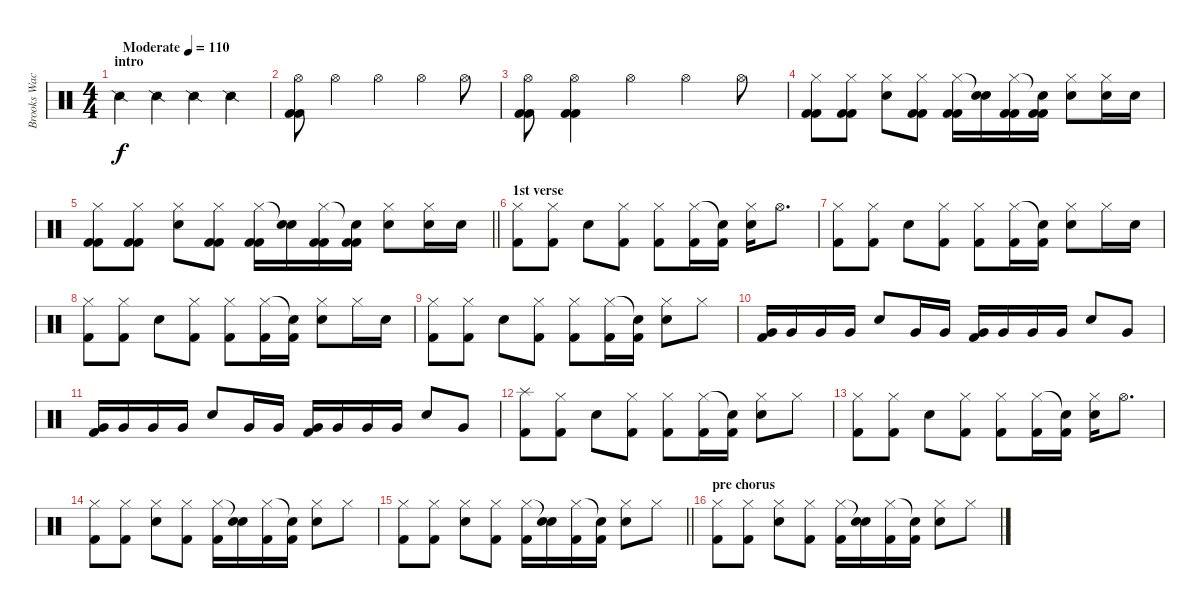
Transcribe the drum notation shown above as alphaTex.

\track ("Brooks Wackerman" "Brooks Wac") {instrument percussion}
\staff {score}
\articulation defaults
\ts (4 4)
\section ("" "intro")
\tempo (110 "Moderate")
\clef neutral
\ks c "Snare (side stick) 2".4{dy f} "Snare (side stick) 2".4 "Snare (side stick) 2".4 "Snare (side stick) 2".4
|
("Hi-Hat (open)" "Kick (hit) 2" "Kick (hit) 2").8 "Hi-Hat (open)".4 "Hi-Hat (open)".4 "Hi-Hat (open)".4 "Hi-Hat (open)".8 |
("Hi-Hat (open)" "Kick (hit) 2" "Kick (hit) 2").8 ("Hi-Hat (open)" "Kick (hit) 2" "Kick (hit) 2").4 "Hi-Hat (open)".4 "Hi-Hat (open)".4 "Hi-Hat (open)".8 |
("Hi-Hat (closed)" "Kick (hit) 2" "Kick (hit) 2").8 ("Hi-Hat (closed)" "Kick (hit) 2" "Kick (hit) 2").8 ("Hi-Hat (closed)" "Snare (hit) 2").8 ("Hi-Hat (closed)" "Kick (hit) 2" "Kick (hit) 2").8 ("Hi-Hat (closed)" "Kick (hit) 2" "Kick (hit) 2").16 ("Snare (hit)"{t} "Snare (hit) 2").16 ("Hi-Hat (closed)" "Kick (hit) 2" "Kick (hit) 2").16 ("Snare (hit)"{t} "Kick (hit) 2" "Kick (hit) 2").16 ("Hi-Hat (closed)" "Snare (hit) 2").8 ("Hi-Hat (closed)" "Snare (hit) 2").16 "Snare (hit) 2".16 |
\barLineRight lightlight
("Hi-Hat (closed)" "Kick (hit) 2" "Kick (hit) 2").8 ("Hi-Hat (closed)" "Kick (hit) 2" "Kick (hit) 2").8 ("Hi-Hat (closed)" "Snare (hit) 2").8 ("Hi-Hat (closed)" "Kick (hit) 2" "Kick (hit) 2").8 ("Hi-Hat (closed)" "Kick (hit) 2" "Kick (hit) 2").16 ("Snare (hit)"{t} "Snare (hit) 2").16 ("Hi-Hat (closed)" "Kick (hit) 2" "Kick (hit) 2").16 ("Snare (hit)"{t} "Kick (hit) 2" "Kick (hit) 2").16 ("Hi-Hat (closed)" "Snare (hit) 2").8 ("Hi-Hat (closed)" "Snare (hit) 2").16 "Snare (hit) 2".16 |
\section ("" "1st verse")
("Hi-Hat (closed)" "Kick (hit) 2").8 ("Hi-Hat (closed)" "Kick (hit) 2").8 "Snare (hit) 2".8 ("Hi-Hat (closed)" "Kick (hit) 2").8 ("Hi-Hat (closed)" "Kick (hit) 2").8 ("Hi-Hat (closed)" "Kick (hit) 2").16 ("Snare (hit)"{t} "Kick (hit) 2").16 ("Hi-Hat (closed)" "Snare (hit) 2").16 "Hi-Hat (open)".8{d} |
("Hi-Hat (closed)" "Kick (hit) 2").8 ("Hi-Hat (closed)" "Kick (hit) 2").8 "Snare (hit) 2".8 ("Hi-Hat (closed)" "Kick (hit) 2").8 ("Hi-Hat (closed)" "Kick (hit) 2").8 ("Hi-Hat (closed)" "Kick (hit) 2").16 ("Snare (hit)"{t} "Kick (hit) 2").16 ("Hi-Hat (closed)" "Snare (hit) 2").8 "Hi-Hat (closed)".16 "Snare (hit) 2".16 |
("Hi-Hat (closed)" "Kick (hit) 2").8 ("Hi-Hat (closed)" "Kick (hit) 2").8 "Snare (hit) 2".8 ("Hi-Hat (closed)" "Kick (hit) 2").8 ("Hi-Hat (closed)" "Kick (hit) 2").8 ("Hi-Hat (closed)" "Kick (hit) 2").16 ("Snare (hit)"{t} "Kick (hit) 2").16 ("Hi-Hat (closed)" "Snare (hit) 2").8 "Hi-Hat (closed)".16 "Snare (hit) 2".16 |
("Hi-Hat (closed)" "Kick (hit) 2").8 ("Hi-Hat (closed)" "Kick (hit) 2").8 "Snare (hit) 2".8 ("Hi-Hat (closed)" "Kick (hit) 2").8 ("Hi-Hat (closed)" "Kick (hit) 2").8 ("Hi-Hat (closed)" "Kick (hit) 2").16 ("Snare (hit)"{t} "Kick (hit) 2").16 ("Hi-Hat (closed)" "Snare (hit) 2").8 "Hi-Hat (closed)".8 |
("Very Low Tom (hit)" "Kick (hit) 2").16 "Very Low Tom (hit)".16 "Very Low Tom (hit)".16 "Very Low Tom (hit)".16 "Snare (hit) 2".8 "Very Low Tom (hit)".16 "Very Low Tom (hit)".16 ("Very Low Tom (hit)" "Kick (hit) 2").16 "Very Low Tom (hit)".16 "Very Low Tom (hit)".16 "Very Low Tom (hit)".16 "Snare (hit) 2".8 "Very Low Tom (hit)".8 |
("Very Low Tom (hit)" "Kick (hit) 2").16 "Very Low Tom (hit)".16 "Very Low Tom (hit)".16 "Very Low Tom (hit)".16 "Snare (hit) 2".8 "Very Low Tom (hit)".16 "Very Low Tom (hit)".16 ("Very Low Tom (hit)" "Kick (hit) 2").16 "Very Low Tom (hit)".16 "Very Low Tom (hit)".16 "Very Low Tom (hit)".16 "Snare (hit) 2".8 "Very Low Tom (hit)".8 |
("Splash (hit)" "Kick (hit) 2").8 ("Hi-Hat (closed)" "Kick (hit) 2").8 "Snare (hit) 2".8 ("Hi-Hat (closed)" "Kick (hit) 2").8 ("Hi-Hat (closed)" "Kick (hit) 2").8 ("Hi-Hat (closed)" "Kick (hit) 2").16 ("Snare (hit)"{t} "Kick (hit) 2").16 ("Hi-Hat (closed)" "Snare (hit) 2").8 "Hi-Hat (closed)".8 |
("Hi-Hat (closed)" "Kick (hit) 2").8 ("Hi-Hat (closed)" "Kick (hit) 2").8 "Snare (hit) 2".8 ("Hi-Hat (closed)" "Kick (hit) 2").8 ("Hi-Hat (closed)" "Kick (hit) 2").8 ("Hi-Hat (closed)" "Kick (hit) 2").16 ("Snare (hit)"{t} "Kick (hit) 2").16 ("Hi-Hat (closed)" "Snare (hit) 2").16 "Hi-Hat (open)".8{d} |
("Hi-Hat (closed)" "Kick (hit) 2").8 ("Hi-Hat (closed)" "Kick (hit) 2").8 ("Hi-Hat (closed)" "Snare (hit) 2").8 ("Hi-Hat (closed)" "Kick (hit) 2").8 ("Hi-Hat (closed)" "Kick (hit) 2").16 ("Snare (hit)"{t} "Snare (hit) 2").16 ("Hi-Hat (closed)" "Kick (hit) 2").16 ("Snare (hit)"{t} "Kick (hit) 2").16 ("Hi-Hat (closed)" "Snare (hit) 2").8 "Hi-Hat (closed)".8 |
\barLineRight lightlight
("Hi-Hat (closed)" "Kick (hit) 2").8 ("Hi-Hat (closed)" "Kick (hit) 2").8 ("Hi-Hat (closed)" "Snare (hit) 2").8 ("Hi-Hat (closed)" "Kick (hit) 2").8 ("Hi-Hat (closed)" "Kick (hit) 2").16 ("Snare (hit)"{t} "Snare (hit) 2").16 ("Hi-Hat (closed)" "Kick (hit) 2").16 ("Snare (hit)"{t} "Kick (hit) 2").16 ("Hi-Hat (closed)" "Snare (hit) 2").8 "Hi-Hat (closed)".8 |
\section ("" "pre chorus")
("Hi-Hat (closed)" "Kick (hit) 2").8 ("Hi-Hat (closed)" "Kick (hit) 2").8 ("Hi-Hat (closed)" "Snare (hit) 2").8 ("Hi-Hat (closed)" "Kick (hit) 2").8 ("Hi-Hat (closed)" "Kick (hit) 2").16 ("Snare (hit)"{t} "Snare (hit) 2").16 ("Hi-Hat (closed)" "Kick (hit) 2").16 ("Snare (hit)"{t} "Kick (hit) 2").16 ("Hi-Hat (closed)" "Snare (hit) 2").8 "Hi-Hat (closed)".8
